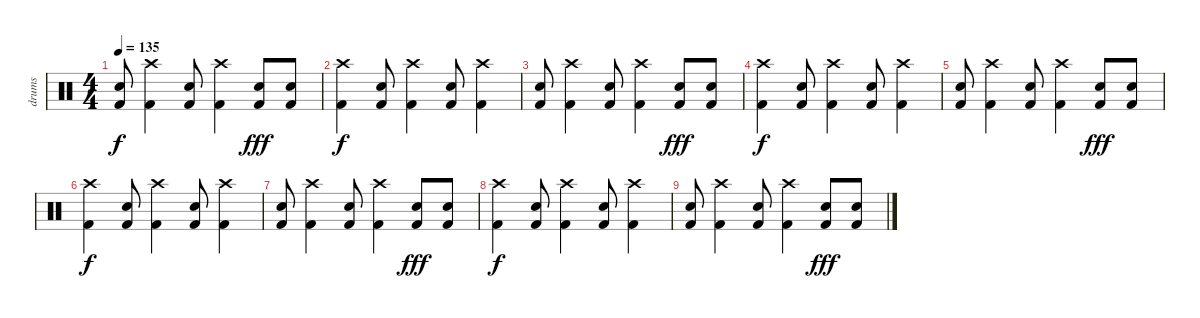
\track ("drums" "drums") {instrument percussion}
\staff {score}
\articulation defaults
\ts (4 4)
\tempo 135
\clef neutral
\ks c
("Electric Snare (hit)" "Kick (hit) 2").8{dy f} ("Crash high (hit)" "Kick (hit) 2").4 ("Electric Snare (hit)" "Kick (hit) 2").8 ("Crash high (hit)" "Kick (hit) 2").4 ("Electric Snare (hit)" "Kick (hit) 2").8{dy fff} ("Electric Snare (hit)" "Kick (hit) 2").8 |
("Crash high (hit)" "Kick (hit) 2").4{dy f} ("Electric Snare (hit)" "Kick (hit) 2").8 ("Crash high (hit)" "Kick (hit) 2").4 ("Electric Snare (hit)" "Kick (hit) 2").8 ("Crash high (hit)" "Kick (hit) 2").4 |
("Electric Snare (hit)" "Kick (hit) 2").8 ("Crash high (hit)" "Kick (hit) 2").4 ("Electric Snare (hit)" "Kick (hit) 2").8 ("Crash high (hit)" "Kick (hit) 2").4 ("Electric Snare (hit)" "Kick (hit) 2").8{dy fff} ("Electric Snare (hit)" "Kick (hit) 2").8 |
("Crash high (hit)" "Kick (hit) 2").4{dy f} ("Electric Snare (hit)" "Kick (hit) 2").8 ("Crash high (hit)" "Kick (hit) 2").4 ("Electric Snare (hit)" "Kick (hit) 2").8 ("Crash high (hit)" "Kick (hit) 2").4 |
("Electric Snare (hit)" "Kick (hit) 2").8 ("Crash high (hit)" "Kick (hit) 2").4 ("Electric Snare (hit)" "Kick (hit) 2").8 ("Crash high (hit)" "Kick (hit) 2").4 ("Electric Snare (hit)" "Kick (hit) 2").8{dy fff} ("Electric Snare (hit)" "Kick (hit) 2").8 |
("Crash high (hit)" "Kick (hit) 2").4{dy f} ("Electric Snare (hit)" "Kick (hit) 2").8 ("Crash high (hit)" "Kick (hit) 2").4 ("Electric Snare (hit)" "Kick (hit) 2").8 ("Crash high (hit)" "Kick (hit) 2").4 |
("Electric Snare (hit)" "Kick (hit) 2").8 ("Crash high (hit)" "Kick (hit) 2").4 ("Electric Snare (hit)" "Kick (hit) 2").8 ("Crash high (hit)" "Kick (hit) 2").4 ("Electric Snare (hit)" "Kick (hit) 2").8{dy fff} ("Electric Snare (hit)" "Kick (hit) 2").8 |
("Crash high (hit)" "Kick (hit) 2").4{dy f} ("Electric Snare (hit)" "Kick (hit) 2").8 ("Crash high (hit)" "Kick (hit) 2").4 ("Electric Snare (hit)" "Kick (hit) 2").8 ("Crash high (hit)" "Kick (hit) 2").4 |
("Electric Snare (hit)" "Kick (hit) 2").8 ("Crash high (hit)" "Kick (hit) 2").4 ("Electric Snare (hit)" "Kick (hit) 2").8 ("Crash high (hit)" "Kick (hit) 2").4 ("Electric Snare (hit)" "Kick (hit) 2").8{dy fff} ("Electric Snare (hit)" "Kick (hit) 2").8
